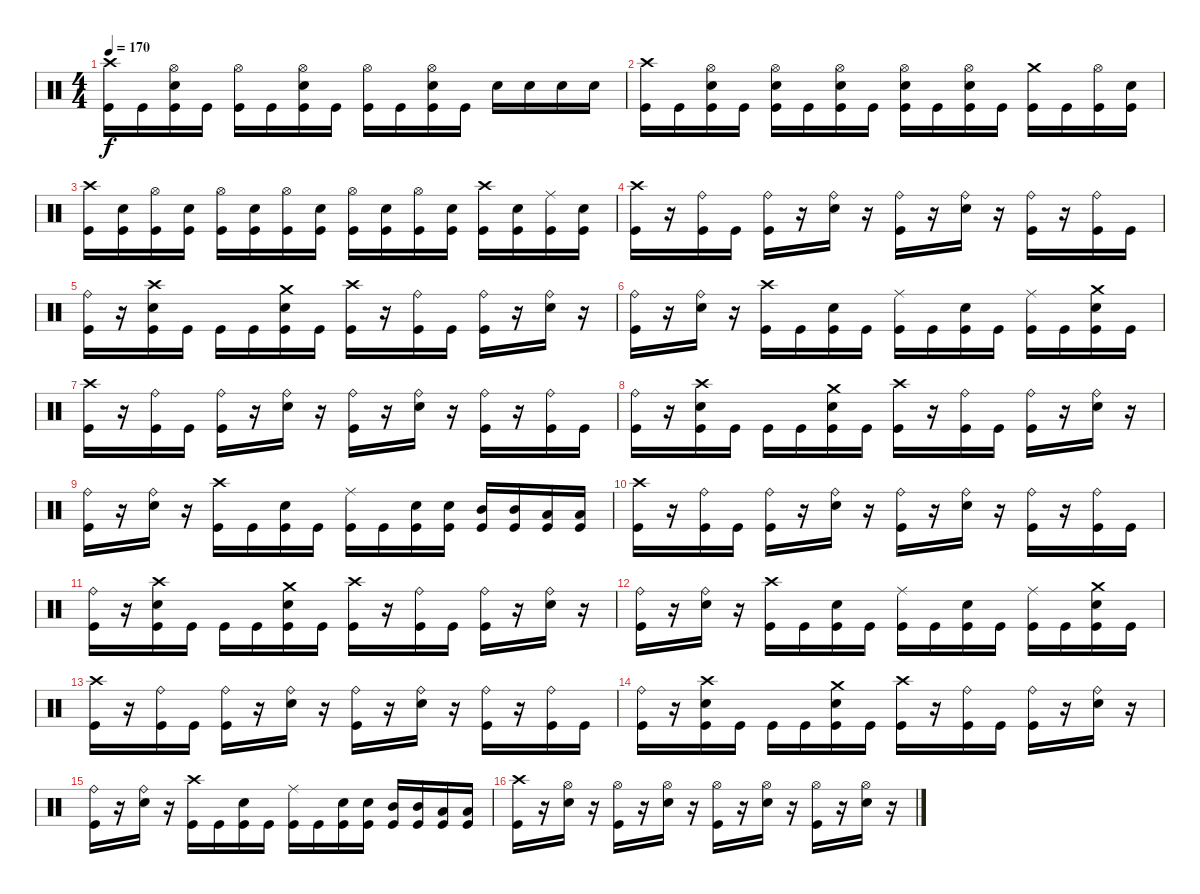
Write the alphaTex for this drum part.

\track "" {instrument percussion}
\staff {score}
\articulation defaults
\ts (4 4)
\tempo 170
\clef neutral
\ks c
("Crash high (hit)" "Kick (hit)").16{dy f} "Kick (hit)".16 ("Snare (hit) 2" "Hi-Hat (open)" "Kick (hit)").16 "Kick (hit)".16 ("Hi-Hat (open)" "Kick (hit)").16 "Kick (hit)".16 ("Hi-Hat (open)" "Kick (hit)" "Snare (hit) 2").16 "Kick (hit)".16 ("Hi-Hat (open)" "Kick (hit)").16 "Kick (hit)".16 ("Snare (hit) 2" "Hi-Hat (open)" "Kick (hit)").16 "Kick (hit)".16 "Snare (hit) 2".16 "Snare (hit) 2".16 "Snare (hit) 2".16 "Snare (hit) 2".16 |
("Kick (hit)" "Crash high (hit)").16 "Kick (hit)".16 ("Snare (hit) 2" "Hi-Hat (open)" "Kick (hit)").16 "Kick (hit)".16 ("Snare (hit) 2" "Hi-Hat (open)" "Kick (hit)").16 "Kick (hit)".16 ("Snare (hit) 2" "Hi-Hat (open)" "Kick (hit)").16 "Kick (hit)".16 ("Snare (hit) 2" "Kick (hit)" "Hi-Hat (open)").16 "Kick (hit)".16 ("Snare (hit) 2" "Kick (hit)" "Hi-Hat (open)").16 "Kick (hit)".16 ("Crash medium (hit)" "Kick (hit)").16 "Kick (hit)".16 ("Hi-Hat (open)" "Kick (hit)").16 ("Snare (hit) 2" "Kick (hit)").16 |
("Kick (hit)" "Crash high (hit)").16 ("Kick (hit)" "Snare (hit) 2").16 ("Kick (hit)" "Hi-Hat (open)").16 ("Kick (hit)" "Snare (hit) 2").16 ("Hi-Hat (open)" "Kick (hit)").16 ("Kick (hit)" "Snare (hit) 2").16 ("Hi-Hat (open)" "Kick (hit)").16 ("Kick (hit)" "Snare (hit) 2").16 ("Hi-Hat (open)" "Kick (hit)").16 ("Kick (hit)" "Snare (hit) 2").16 ("Kick (hit)" "Hi-Hat (open)").16 ("Kick (hit)" "Snare (hit) 2").16 ("Crash high (hit)" "Kick (hit)").16 ("Kick (hit)" "Snare (hit) 2").16 ("Ride (middle)" "Kick (hit)").16 ("Kick (hit)" "Snare (hit) 2").16 |
("Crash high (hit)" "Kick (hit)").16 r.16 ("Ride (bell)" "Kick (hit)").16 "Kick (hit)".16 ("Kick (hit)" "Ride (bell)").16 r.16 ("Snare (hit) 2" "Ride (bell)").16 r.16 ("Ride (bell)" "Kick (hit)").16 r.16 ("Ride (bell)" "Snare (hit) 2").16 r.16 ("Ride (bell)" "Kick (hit)").16 r.16 ("Ride (bell)" "Kick (hit)").16 "Kick (hit)".16 |
("Ride (bell)" "Kick (hit)").16 r.16 ("Kick (hit)" "Snare (hit) 2" "Crash high (hit)").16 "Kick (hit)".16 "Kick (hit)".16 "Kick (hit)".16 ("Kick (hit)" "Snare (hit) 2" "Crash medium (hit)").16 "Kick (hit)".16 ("Crash high (hit)" "Kick (hit)").16 r.16 ("Ride (bell)" "Kick (hit)").16 "Kick (hit)".16 ("Ride (bell)" "Kick (hit)").16 r.16 ("Snare (hit) 2" "Ride (bell)").16 r.16 |
("Ride (bell)" "Kick (hit)").16 r.16 ("Snare (hit) 2" "Ride (bell)").16 r.16 ("Crash high (hit)" "Kick (hit)").16 "Kick (hit)".16 ("Kick (hit)" "Snare (hit) 2").16 "Kick (hit)".16 ("Ride (middle)" "Kick (hit)").16 "Kick (hit)".16 ("Snare (hit) 2" "Kick (hit)").16 "Kick (hit)".16 ("Kick (hit)" "Ride (middle)").16 "Kick (hit)".16 ("Snare (hit) 2" "Kick (hit)" "Crash medium (hit)").16 "Kick (hit)".16 |
("Crash high (hit)" "Kick (hit)").16 r.16 ("Ride (bell)" "Kick (hit)").16 "Kick (hit)".16 ("Kick (hit)" "Ride (bell)").16 r.16 ("Snare (hit) 2" "Ride (bell)").16 r.16 ("Ride (bell)" "Kick (hit)").16 r.16 ("Ride (bell)" "Snare (hit) 2").16 r.16 ("Ride (bell)" "Kick (hit)").16 r.16 ("Ride (bell)" "Kick (hit)").16 "Kick (hit)".16 |
("Ride (bell)" "Kick (hit)").16 r.16 ("Kick (hit)" "Snare (hit) 2" "Crash high (hit)").16 "Kick (hit)".16 "Kick (hit)".16 "Kick (hit)".16 ("Kick (hit)" "Snare (hit) 2" "Crash medium (hit)").16 "Kick (hit)".16 ("Crash high (hit)" "Kick (hit)").16 r.16 ("Ride (bell)" "Kick (hit)").16 "Kick (hit)".16 ("Ride (bell)" "Kick (hit)").16 r.16 ("Snare (hit) 2" "Ride (bell)").16 r.16 |
("Ride (bell)" "Kick (hit)").16 r.16 ("Snare (hit) 2" "Ride (bell)").16 r.16 ("Crash high (hit)" "Kick (hit)").16 "Kick (hit)".16 ("Kick (hit)" "Snare (hit) 2").16 "Kick (hit)".16 ("Ride (middle)" "Kick (hit)").16 "Kick (hit)".16 ("Snare (hit) 2" "Kick (hit)").16 ("Kick (hit)" "Snare (hit) 2").16 ("Mid Tom (hit)" "Kick (hit)").16 ("Mid Tom (hit)" "Kick (hit)").16 ("Low Tom (hit)" "Kick (hit)").16 ("Kick (hit)" "Low Tom (hit)").16 |
("Crash high (hit)" "Kick (hit)").16 r.16 ("Ride (bell)" "Kick (hit)").16 "Kick (hit)".16 ("Kick (hit)" "Ride (bell)").16 r.16 ("Snare (hit) 2" "Ride (bell)").16 r.16 ("Ride (bell)" "Kick (hit)").16 r.16 ("Ride (bell)" "Snare (hit) 2").16 r.16 ("Ride (bell)" "Kick (hit)").16 r.16 ("Ride (bell)" "Kick (hit)").16 "Kick (hit)".16 |
("Ride (bell)" "Kick (hit)").16 r.16 ("Kick (hit)" "Snare (hit) 2" "Crash high (hit)").16 "Kick (hit)".16 "Kick (hit)".16 "Kick (hit)".16 ("Kick (hit)" "Snare (hit) 2" "Crash medium (hit)").16 "Kick (hit)".16 ("Crash high (hit)" "Kick (hit)").16 r.16 ("Ride (bell)" "Kick (hit)").16 "Kick (hit)".16 ("Ride (bell)" "Kick (hit)").16 r.16 ("Snare (hit) 2" "Ride (bell)").16 r.16 |
("Ride (bell)" "Kick (hit)").16 r.16 ("Snare (hit) 2" "Ride (bell)").16 r.16 ("Crash high (hit)" "Kick (hit)").16 "Kick (hit)".16 ("Kick (hit)" "Snare (hit) 2").16 "Kick (hit)".16 ("Ride (middle)" "Kick (hit)").16 "Kick (hit)".16 ("Snare (hit) 2" "Kick (hit)").16 "Kick (hit)".16 ("Kick (hit)" "Ride (middle)").16 "Kick (hit)".16 ("Snare (hit) 2" "Kick (hit)" "Crash medium (hit)").16 "Kick (hit)".16 |
("Crash high (hit)" "Kick (hit)").16 r.16 ("Ride (bell)" "Kick (hit)").16 "Kick (hit)".16 ("Kick (hit)" "Ride (bell)").16 r.16 ("Snare (hit) 2" "Ride (bell)").16 r.16 ("Ride (bell)" "Kick (hit)").16 r.16 ("Ride (bell)" "Snare (hit) 2").16 r.16 ("Ride (bell)" "Kick (hit)").16 r.16 ("Ride (bell)" "Kick (hit)").16 "Kick (hit)".16 |
("Ride (bell)" "Kick (hit)").16 r.16 ("Kick (hit)" "Snare (hit) 2" "Crash high (hit)").16 "Kick (hit)".16 "Kick (hit)".16 "Kick (hit)".16 ("Kick (hit)" "Snare (hit) 2" "Crash medium (hit)").16 "Kick (hit)".16 ("Crash high (hit)" "Kick (hit)").16 r.16 ("Ride (bell)" "Kick (hit)").16 "Kick (hit)".16 ("Ride (bell)" "Kick (hit)").16 r.16 ("Snare (hit) 2" "Ride (bell)").16 r.16 |
("Ride (bell)" "Kick (hit)").16 r.16 ("Snare (hit) 2" "Ride (bell)").16 r.16 ("Crash high (hit)" "Kick (hit)").16 "Kick (hit)".16 ("Kick (hit)" "Snare (hit) 2").16 "Kick (hit)".16 ("Ride (middle)" "Kick (hit)").16 "Kick (hit)".16 ("Snare (hit) 2" "Kick (hit)").16 ("Kick (hit)" "Snare (hit) 2").16 ("Mid Tom (hit)" "Kick (hit)").16 ("Mid Tom (hit)" "Kick (hit)").16 ("Low Tom (hit)" "Kick (hit)").16 ("Kick (hit)" "Low Tom (hit)").16 |
("Crash high (hit)" "Kick (hit)").16 r.16 ("Snare (hit) 2" "Hi-Hat (open)").16 r.16 ("Kick (hit)" "Hi-Hat (open)").16 r.16 ("Snare (hit) 2" "Hi-Hat (open)").16 r.16 ("Kick (hit)" "Hi-Hat (open)").16 r.16 ("Snare (hit) 2" "Hi-Hat (open)").16 r.16 ("Kick (hit)" "Hi-Hat (open)").16 r.16 ("Snare (hit) 2" "Hi-Hat (open)").16 r.16
